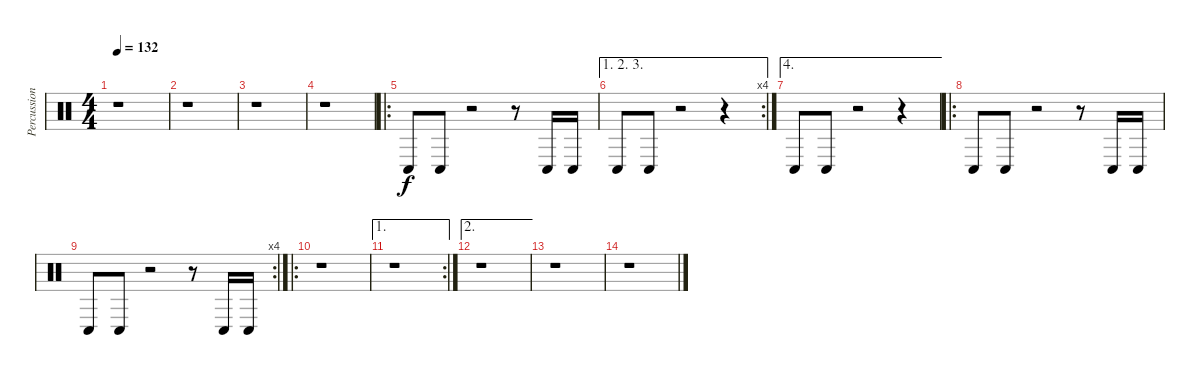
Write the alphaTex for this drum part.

\track ("Percussion Rythm" "Percussion") {instrument percussion}
\staff {score}
\articulation defaults
\ts (4 4)
\tempo 132
\clef neutral
\ks c
r.1{dy f} |
r.1 |
r.1 |
r.1 |
\ro "Conga low (hit)".8 "Conga low (hit)".8
r.2 r.8 "Conga low (hit)".16 "Conga low (hit)".16 |
\ae (1 2 3)
\rc 4 "Conga low (hit)".8 "Conga low (hit)".8
r.2 r.4 |
\ae 4 "Conga low (hit)".8 "Conga low (hit)".8
r.2 r.4 |
\ro "Conga low (hit)".8 "Conga low (hit)".8
r.2 r.8 "Conga low (hit)".16 "Conga low (hit)".16 |
\rc 4 "Conga low (hit)".8 "Conga low (hit)".8
r.2 r.8 "Conga low (hit)".16 "Conga low (hit)".16 |
\ro
r.1 |
\ae 1
\rc 2
r.1 |
\ae 2
r.1 |
r.1 |
r.1
